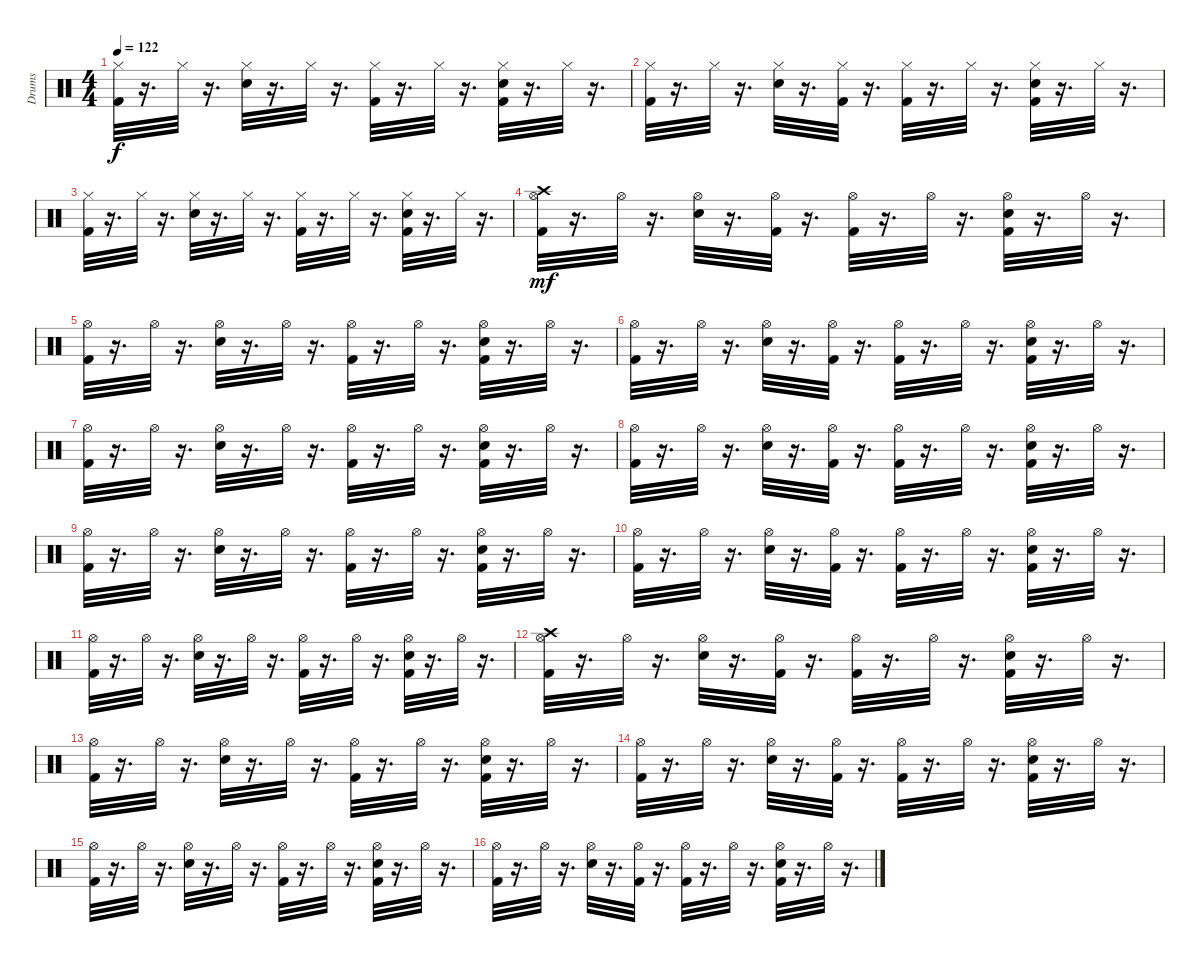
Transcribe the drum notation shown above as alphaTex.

\track ("Drums" "Drums") {instrument percussion}
\staff {score}
\articulation defaults
\ts (4 4)
\tempo 122
\clef neutral
\ks c
("Kick (hit) 2" "Hi-Hat (closed)").32{dy f} r.16{d} "Hi-Hat (closed)".32 r.16{d} ("Snare (hit) 2" "Hi-Hat (closed)").32 r.16{d} "Hi-Hat (closed)".32 r.16{d} ("Kick (hit) 2" "Hi-Hat (closed)").32 r.16{d} "Hi-Hat (closed)".32 r.16{d} ("Kick (hit) 2" "Snare (hit) 2" "Hi-Hat (closed)").32 r.16{d} "Hi-Hat (closed)".32 r.16{d} |
("Kick (hit) 2" "Hi-Hat (closed)").32 r.16{d} "Hi-Hat (closed)".32 r.16{d} ("Snare (hit) 2" "Hi-Hat (closed)").32 r.16{d} ("Kick (hit) 2" "Hi-Hat (closed)").32 r.16{d} ("Kick (hit) 2" "Hi-Hat (closed)").32 r.16{d} "Hi-Hat (closed)".32 r.16{d} ("Kick (hit) 2" "Snare (hit) 2" "Hi-Hat (closed)").32 r.16{d} "Hi-Hat (closed)".32 r.16{d} |
("Kick (hit) 2" "Hi-Hat (closed)").32 r.16{d} "Hi-Hat (closed)".32 r.16{d} ("Snare (hit) 2" "Hi-Hat (closed)").32 r.16{d} "Hi-Hat (closed)".32 r.16{d} ("Kick (hit) 2" "Hi-Hat (closed)").32 r.16{d} "Hi-Hat (closed)".32 r.16{d} ("Kick (hit) 2" "Snare (hit) 2" "Hi-Hat (closed)").32 r.16{d} "Hi-Hat (closed)".32 r.16{d} |
("Kick (hit) 2" "Hi-Hat (open)" "Crash high (hit)").32{dy mf} r.16{d} "Hi-Hat (open)".32 r.16{d} ("Snare (hit) 2" "Hi-Hat (open)").32 r.16{d} ("Kick (hit) 2" "Hi-Hat (open)").32 r.16{d} ("Kick (hit) 2" "Hi-Hat (open)").32 r.16{d} "Hi-Hat (open)".32 r.16{d} ("Kick (hit) 2" "Snare (hit) 2" "Hi-Hat (open)").32 r.16{d} "Hi-Hat (open)".32 r.16{d} |
("Kick (hit) 2" "Hi-Hat (open)").32 r.16{d} "Hi-Hat (open)".32 r.16{d} ("Snare (hit) 2" "Hi-Hat (open)").32 r.16{d} "Hi-Hat (open)".32 r.16{d} ("Kick (hit) 2" "Hi-Hat (open)").32 r.16{d} "Hi-Hat (open)".32 r.16{d} ("Kick (hit) 2" "Snare (hit) 2" "Hi-Hat (open)").32 r.16{d} "Hi-Hat (open)".32 r.16{d} |
("Kick (hit) 2" "Hi-Hat (open)").32 r.16{d} "Hi-Hat (open)".32 r.16{d} ("Snare (hit) 2" "Hi-Hat (open)").32 r.16{d} ("Kick (hit) 2" "Hi-Hat (open)").32 r.16{d} ("Kick (hit) 2" "Hi-Hat (open)").32 r.16{d} "Hi-Hat (open)".32 r.16{d} ("Kick (hit) 2" "Snare (hit) 2" "Hi-Hat (open)").32 r.16{d} "Hi-Hat (open)".32 r.16{d} |
("Kick (hit) 2" "Hi-Hat (open)").32 r.16{d} "Hi-Hat (open)".32 r.16{d} ("Snare (hit) 2" "Hi-Hat (open)").32 r.16{d} "Hi-Hat (open)".32 r.16{d} ("Kick (hit) 2" "Hi-Hat (open)").32 r.16{d} "Hi-Hat (open)".32 r.16{d} ("Kick (hit) 2" "Snare (hit) 2" "Hi-Hat (open)").32 r.16{d} "Hi-Hat (open)".32 r.16{d} |
("Kick (hit) 2" "Hi-Hat (open)").32 r.16{d} "Hi-Hat (open)".32 r.16{d} ("Snare (hit) 2" "Hi-Hat (open)").32 r.16{d} ("Kick (hit) 2" "Hi-Hat (open)").32 r.16{d} ("Kick (hit) 2" "Hi-Hat (open)").32 r.16{d} "Hi-Hat (open)".32 r.16{d} ("Kick (hit) 2" "Snare (hit) 2" "Hi-Hat (open)").32 r.16{d} "Hi-Hat (open)".32 r.16{d} |
("Kick (hit) 2" "Hi-Hat (open)").32 r.16{d} "Hi-Hat (open)".32 r.16{d} ("Snare (hit) 2" "Hi-Hat (open)").32 r.16{d} "Hi-Hat (open)".32 r.16{d} ("Kick (hit) 2" "Hi-Hat (open)").32 r.16{d} "Hi-Hat (open)".32 r.16{d} ("Kick (hit) 2" "Snare (hit) 2" "Hi-Hat (open)").32 r.16{d} "Hi-Hat (open)".32 r.16{d} |
("Kick (hit) 2" "Hi-Hat (open)").32 r.16{d} "Hi-Hat (open)".32 r.16{d} ("Snare (hit) 2" "Hi-Hat (open)").32 r.16{d} ("Kick (hit) 2" "Hi-Hat (open)").32 r.16{d} ("Kick (hit) 2" "Hi-Hat (open)").32 r.16{d} "Hi-Hat (open)".32 r.16{d} ("Kick (hit) 2" "Snare (hit) 2" "Hi-Hat (open)").32 r.16{d} "Hi-Hat (open)".32 r.16{d} |
("Kick (hit) 2" "Hi-Hat (open)").32 r.16{d} "Hi-Hat (open)".32 r.16{d} ("Snare (hit) 2" "Hi-Hat (open)").32 r.16{d} "Hi-Hat (open)".32 r.16{d} ("Kick (hit) 2" "Hi-Hat (open)").32 r.16{d} "Hi-Hat (open)".32 r.16{d} ("Kick (hit) 2" "Snare (hit) 2" "Hi-Hat (open)").32 r.16{d} "Hi-Hat (open)".32 r.16{d} |
("Kick (hit) 2" "Hi-Hat (open)" "Crash high (hit)").32 r.16{d} "Hi-Hat (open)".32 r.16{d} ("Snare (hit) 2" "Hi-Hat (open)").32 r.16{d} ("Kick (hit) 2" "Hi-Hat (open)").32 r.16{d} ("Kick (hit) 2" "Hi-Hat (open)").32 r.16{d} "Hi-Hat (open)".32 r.16{d} ("Kick (hit) 2" "Snare (hit) 2" "Hi-Hat (open)").32 r.16{d} "Hi-Hat (open)".32 r.16{d} |
("Kick (hit) 2" "Hi-Hat (open)").32 r.16{d} "Hi-Hat (open)".32 r.16{d} ("Snare (hit) 2" "Hi-Hat (open)").32 r.16{d} "Hi-Hat (open)".32 r.16{d} ("Kick (hit) 2" "Hi-Hat (open)").32 r.16{d} "Hi-Hat (open)".32 r.16{d} ("Kick (hit) 2" "Snare (hit) 2" "Hi-Hat (open)").32 r.16{d} "Hi-Hat (open)".32 r.16{d} |
("Kick (hit) 2" "Hi-Hat (open)").32 r.16{d} "Hi-Hat (open)".32 r.16{d} ("Snare (hit) 2" "Hi-Hat (open)").32 r.16{d} ("Kick (hit) 2" "Hi-Hat (open)").32 r.16{d} ("Kick (hit) 2" "Hi-Hat (open)").32 r.16{d} "Hi-Hat (open)".32 r.16{d} ("Kick (hit) 2" "Snare (hit) 2" "Hi-Hat (open)").32 r.16{d} "Hi-Hat (open)".32 r.16{d} |
("Kick (hit) 2" "Hi-Hat (open)").32 r.16{d} "Hi-Hat (open)".32 r.16{d} ("Snare (hit) 2" "Hi-Hat (open)").32 r.16{d} "Hi-Hat (open)".32 r.16{d} ("Kick (hit) 2" "Hi-Hat (open)").32 r.16{d} "Hi-Hat (open)".32 r.16{d} ("Kick (hit) 2" "Snare (hit) 2" "Hi-Hat (open)").32 r.16{d} "Hi-Hat (open)".32 r.16{d} |
("Kick (hit) 2" "Hi-Hat (open)").32 r.16{d} "Hi-Hat (open)".32 r.16{d} ("Snare (hit) 2" "Hi-Hat (open)").32 r.16{d} ("Kick (hit) 2" "Hi-Hat (open)").32 r.16{d} ("Kick (hit) 2" "Hi-Hat (open)").32 r.16{d} "Hi-Hat (open)".32 r.16{d} ("Kick (hit) 2" "Snare (hit) 2" "Hi-Hat (open)").32 r.16{d} "Hi-Hat (open)".32 r.16{d}
